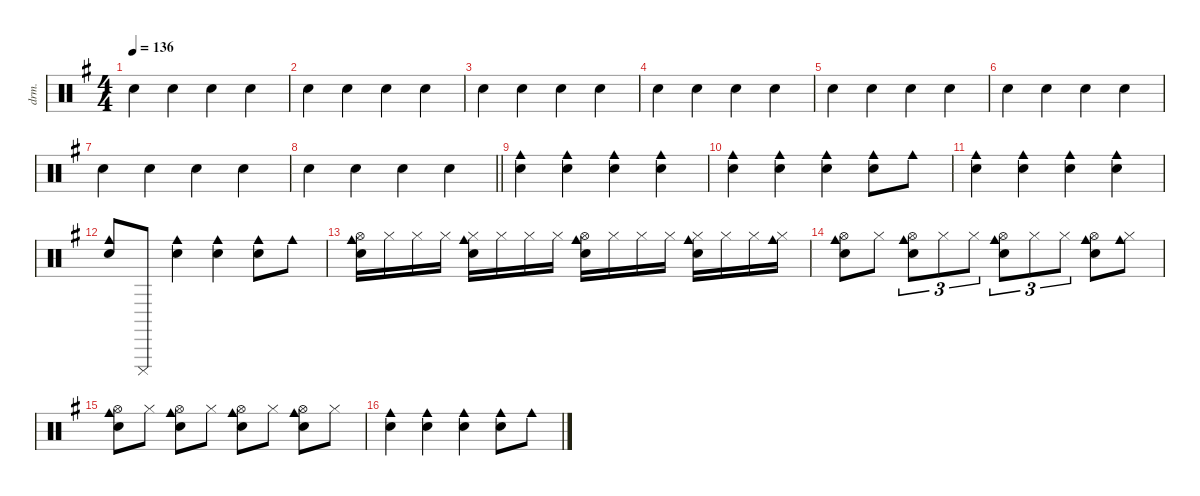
\defaultSystemsLayout 4
\hideDynamics
\bracketExtendMode nobrackets
\otherSystemsTrackNameOrientation horizontal
\track ("Percussions" "drm.") {instrument percussion}
\staff {score}
\articulation defaults
\ts (4 4)
\tempo 136
\clef neutral
\ks g "Hand Clap (hit)"{acc forcenatural}.4{dy f beam Down} "Hand Clap (hit)"{acc forcenatural}.4{beam Down} "Hand Clap (hit)"{acc forcenatural}.4{beam Down} "Hand Clap (hit)"{acc forcenatural}.4{beam Down}
|
"Hand Clap (hit)"{acc forcenatural}.4{beam Down} "Hand Clap (hit)"{acc forcenatural}.4{beam Down} "Hand Clap (hit)"{acc forcenatural}.4{beam Down} "Hand Clap (hit)"{acc forcenatural}.4{beam Down} |
"Hand Clap (hit)"{acc forcenatural}.4{beam Down} "Hand Clap (hit)"{acc forcenatural}.4{beam Down} "Hand Clap (hit)"{acc forcenatural}.4{beam Down} "Hand Clap (hit)"{acc forcenatural}.4{beam Down} |
"Hand Clap (hit)"{acc forcenatural}.4{beam Down} "Hand Clap (hit)"{acc forcenatural}.4{beam Down} "Hand Clap (hit)"{acc forcenatural}.4{beam Down} "Hand Clap (hit)"{acc forcenatural}.4{beam Down} |
"Hand Clap (hit)"{acc forcenatural}.4{beam Down} "Hand Clap (hit)"{acc forcenatural}.4{beam Down} "Hand Clap (hit)"{acc forcenatural}.4{beam Down} "Hand Clap (hit)"{acc forcenatural}.4{beam Down} |
"Hand Clap (hit)"{acc forcenatural}.4{beam Down} "Hand Clap (hit)"{acc forcenatural}.4{beam Down} "Hand Clap (hit)"{acc forcenatural}.4{beam Down} "Hand Clap (hit)"{acc forcenatural}.4{beam Down} |
"Hand Clap (hit)"{acc forcenatural}.4{beam Down} "Hand Clap (hit)"{acc forcenatural}.4{beam Down} "Hand Clap (hit)"{acc forcenatural}.4{beam Down} "Hand Clap (hit)"{acc forcenatural}.4{beam Down} |
\barLineRight lightlight "Hand Clap (hit)"{acc forcenatural}.4{beam Down} "Hand Clap (hit)"{acc forcenatural}.4{beam Down} "Hand Clap (hit)"{acc forcenatural}.4{beam Down} "Hand Clap (hit)"{acc forcenatural}.4{beam Down}
|
("Hand Clap (hit)"{acc forcenatural} "Cowbell medium (hit)"{acc forcenatural}).4{beam Down} ("Hand Clap (hit)"{acc forcenatural} "Cowbell medium (hit)"{acc forcenatural}).4{beam Down} ("Hand Clap (hit)"{acc forcenatural} "Cowbell medium (hit)"{acc forcenatural}).4{beam Down} ("Hand Clap (hit)"{acc forcenatural} "Cowbell medium (hit)"{acc forcenatural}).4{beam Down} |
("Hand Clap (hit)"{acc forcenatural} "Cowbell medium (hit)"{acc forcenatural}).4{beam Down} ("Hand Clap (hit)"{acc forcenatural} "Cowbell medium (hit)"{acc forcenatural}).4{beam Down} ("Hand Clap (hit)"{acc forcenatural} "Cowbell medium (hit)"{acc forcenatural}).4{beam Down} ("Hand Clap (hit)"{acc forcenatural} "Cowbell medium (hit)"{acc forcenatural}).8{beam Down} "Cowbell medium (hit)"{acc forcenatural}.8{beam Down} |
("Hand Clap (hit)"{acc forcenatural} "Cowbell medium (hit)"{acc forcenatural}).4{beam Down} ("Hand Clap (hit)"{acc forcenatural} "Cowbell medium (hit)"{acc forcenatural}).4{beam Down} ("Hand Clap (hit)"{acc forcenatural} "Cowbell medium (hit)"{acc forcenatural}).4{beam Down} ("Hand Clap (hit)"{acc forcenatural} "Cowbell medium (hit)"{acc forcenatural}).4{beam Down} |
("Hand Clap (hit)"{acc forcenatural} "Cowbell medium (hit)"{acc forcenatural}).8{beam Up} "Cuica (mute)"{acc forcenatural}.8{beam Up} ("Hand Clap (hit)"{acc forcenatural} "Cowbell medium (hit)"{acc forcenatural}).4{beam Down} ("Hand Clap (hit)"{acc forcenatural} "Cowbell medium (hit)"{acc forcenatural}).4{beam Down} ("Hand Clap (hit)"{acc forcenatural} "Cowbell medium (hit)"{acc forcenatural}).8{beam Down} "Cowbell medium (hit)"{acc forcenatural}.8{beam Down} |
("Hand Clap (hit)"{acc forcenatural} "Cowbell medium (hit)"{acc forcenatural} "Hi-Hat (open)"{acc forcenatural}).16{beam Down} "Hi-Hat (closed)"{acc forcenatural}.16{beam Down} "Hi-Hat (closed)"{acc forcenatural}.16{beam Down} "Hi-Hat (closed)"{acc forcenatural}.16{beam Down} ("Hand Clap (hit)"{acc forcenatural} "Cowbell medium (hit)"{acc forcenatural} "Hi-Hat (closed)"{acc forcenatural}).16{beam Down} "Hi-Hat (closed)"{acc forcenatural}.16{beam Down} "Hi-Hat (closed)"{acc forcenatural}.16{beam Down} "Hi-Hat (closed)"{acc forcenatural}.16{beam Down} ("Hand Clap (hit)"{acc forcenatural} "Cowbell medium (hit)"{acc forcenatural} "Hi-Hat (open)"{acc forcenatural}).16{beam Down} "Hi-Hat (closed)"{acc forcenatural}.16{beam Down} "Hi-Hat (closed)"{acc forcenatural}.16{beam Down} "Hi-Hat (closed)"{acc forcenatural}.16{beam Down} ("Hand Clap (hit)"{acc forcenatural} "Cowbell medium (hit)"{acc forcenatural} "Hi-Hat (closed)"{acc forcenatural}).16{beam Down} "Hi-Hat (closed)"{acc forcenatural}.16{beam Down} "Hi-Hat (closed)"{acc forcenatural}.16{beam Down} ("Cowbell medium (hit)"{acc forcenatural} "Hi-Hat (closed)"{acc forcenatural}).16{beam Down} |
("Hand Clap (hit)"{acc forcenatural} "Cowbell medium (hit)"{acc forcenatural} "Hi-Hat (open)"{acc forcenatural}).8{beam Down} "Hi-Hat (closed)"{acc forcenatural}.8{beam Down} ("Hand Clap (hit)"{acc forcenatural} "Cowbell medium (hit)"{acc forcenatural} "Hi-Hat (open)"{acc forcenatural}).8{tu (3 2) beam Down} "Hi-Hat (closed)"{acc forcenatural}.8{tu (3 2) beam Down} "Hi-Hat (closed)"{acc forcenatural}.8{tu (3 2) beam Down} ("Hand Clap (hit)"{acc forcenatural} "Cowbell medium (hit)"{acc forcenatural} "Hi-Hat (open)"{acc forcenatural}).8{tu (3 2) beam Down} "Hi-Hat (closed)"{acc forcenatural}.8{tu (3 2) beam Down} "Hi-Hat (closed)"{acc forcenatural}.8{tu (3 2) beam Down} ("Hand Clap (hit)"{acc forcenatural} "Cowbell medium (hit)"{acc forcenatural} "Hi-Hat (open)"{acc forcenatural}).8{beam Down} ("Cowbell medium (hit)"{acc forcenatural} "Hi-Hat (closed)"{acc forcenatural}).8{beam Down} |
("Hand Clap (hit)"{acc forcenatural} "Cowbell medium (hit)"{acc forcenatural} "Hi-Hat (open)"{acc forcenatural}).8{beam Down} "Hi-Hat (closed)"{acc forcenatural}.8{beam Down} ("Hand Clap (hit)"{acc forcenatural} "Cowbell medium (hit)"{acc forcenatural} "Hi-Hat (open)"{acc forcenatural}).8{beam Down} "Hi-Hat (closed)"{acc forcenatural}.8{beam Down} ("Hand Clap (hit)"{acc forcenatural} "Cowbell medium (hit)"{acc forcenatural} "Hi-Hat (open)"{acc forcenatural}).8{beam Down} "Hi-Hat (closed)"{acc forcenatural}.8{beam Down} ("Hand Clap (hit)"{acc forcenatural} "Cowbell medium (hit)"{acc forcenatural} "Hi-Hat (open)"{acc forcenatural}).8{beam Down} "Hi-Hat (closed)"{acc forcenatural}.8{beam Down} |
("Hand Clap (hit)"{acc forcenatural} "Cowbell medium (hit)"{acc forcenatural}).4{beam Down} ("Hand Clap (hit)"{acc forcenatural} "Cowbell medium (hit)"{acc forcenatural}).4{beam Down} ("Hand Clap (hit)"{acc forcenatural} "Cowbell medium (hit)"{acc forcenatural}).4{beam Down} ("Hand Clap (hit)"{acc forcenatural} "Cowbell medium (hit)"{acc forcenatural}).8{beam Down} "Cowbell medium (hit)"{acc forcenatural}.8{beam Down}
